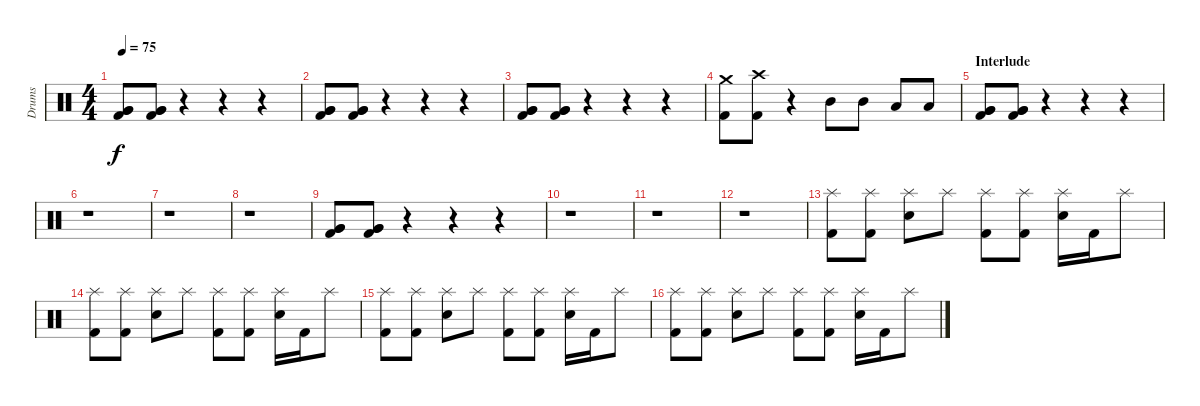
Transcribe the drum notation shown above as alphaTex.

\track ("Drums" "Drums") {instrument percussion}
\staff {score}
\articulation defaults
\ts (4 4)
\tempo 75
\clef neutral
\ks c
("Very Low Tom (hit)" "Very Low Tom (hit)" "Kick (hit) 2").8{dy f} ("Very Low Tom (hit)" "Very Low Tom (hit)" "Kick (hit) 2").8 r.4 r.4 r.4 |
("Very Low Tom (hit)" "Very Low Tom (hit)" "Kick (hit) 2").8 ("Very Low Tom (hit)" "Very Low Tom (hit)" "Kick (hit) 2").8 r.4 r.4 r.4 |
("Very Low Tom (hit)" "Very Low Tom (hit)" "Kick (hit) 2").8 ("Very Low Tom (hit)" "Very Low Tom (hit)" "Kick (hit) 2").8 r.4 r.4 r.4 |
("Crash medium (hit)" "Kick (hit) 2").8 ("Crash high (hit)" "Kick (hit) 2").8 r.4 "Mid Tom (hit)".8 "Mid Tom (hit)".8 "Low Tom (hit)".8 "Low Tom (hit)".8 |
\section ("" "Interlude")
("Very Low Tom (hit)" "Very Low Tom (hit)" "Kick (hit) 2").8 ("Very Low Tom (hit)" "Very Low Tom (hit)" "Kick (hit) 2").8 r.4 r.4 r.4 |
r.1 |
r.1 |
r.1 |
("Very Low Tom (hit)" "Very Low Tom (hit)" "Kick (hit) 2").8 ("Very Low Tom (hit)" "Very Low Tom (hit)" "Kick (hit) 2").8 r.4 r.4 r.4 |
r.1 |
r.1 |
r.1 |
("Splash (hit)" "Kick (hit) 2").8 ("Splash (hit)" "Kick (hit) 2").8 ("Splash (hit)" "Snare (hit) 2").8 "Splash (hit)".8 ("Splash (hit)" "Kick (hit) 2").8 ("Splash (hit)" "Kick (hit) 2").8 ("Splash (hit)" "Snare (hit) 2").16 "Kick (hit) 2".16 "Splash (hit)".8 |
("Splash (hit)" "Kick (hit) 2").8 ("Splash (hit)" "Kick (hit) 2").8 ("Splash (hit)" "Snare (hit) 2").8 "Splash (hit)".8 ("Splash (hit)" "Kick (hit) 2").8 ("Splash (hit)" "Kick (hit) 2").8 ("Splash (hit)" "Snare (hit) 2").16 "Kick (hit) 2".16 "Splash (hit)".8 |
("Splash (hit)" "Kick (hit) 2").8 ("Splash (hit)" "Kick (hit) 2").8 ("Splash (hit)" "Snare (hit) 2").8 "Splash (hit)".8 ("Splash (hit)" "Kick (hit) 2").8 ("Splash (hit)" "Kick (hit) 2").8 ("Splash (hit)" "Snare (hit) 2").16 "Kick (hit) 2".16 "Splash (hit)".8 |
("Splash (hit)" "Kick (hit) 2").8 ("Splash (hit)" "Kick (hit) 2").8 ("Splash (hit)" "Snare (hit) 2").8 "Splash (hit)".8 ("Splash (hit)" "Kick (hit) 2").8 ("Splash (hit)" "Kick (hit) 2").8 ("Splash (hit)" "Snare (hit) 2").16 "Kick (hit) 2".16 "Splash (hit)".8
